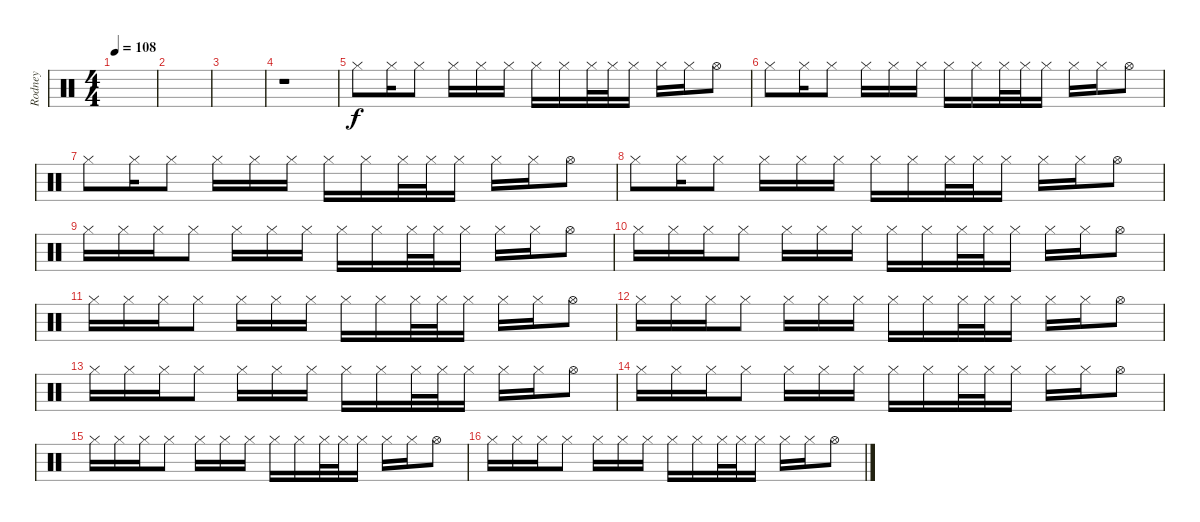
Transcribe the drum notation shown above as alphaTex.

\track ("Rodney" "Rodney") {instrument percussion}
\staff {score}
\articulation defaults
\ts (4 4)
\tempo 108
\clef neutral
\ks c
|
|
|
r.1 |
"Hi-Hat (closed)".8{dy f} "Hi-Hat (closed)".16 "Hi-Hat (closed)".8 "Hi-Hat (closed)".16 "Hi-Hat (closed)".16 "Hi-Hat (closed)".16 "Hi-Hat (closed)".16 "Hi-Hat (closed)".16 "Hi-Hat (closed)".32 "Hi-Hat (closed)".32 "Hi-Hat (closed)".16 "Hi-Hat (closed)".16 "Hi-Hat (closed)".16 "Hi-Hat (open)".8 |
"Hi-Hat (closed)".8 "Hi-Hat (closed)".16 "Hi-Hat (closed)".8 "Hi-Hat (closed)".16 "Hi-Hat (closed)".16 "Hi-Hat (closed)".16 "Hi-Hat (closed)".16 "Hi-Hat (closed)".16 "Hi-Hat (closed)".32 "Hi-Hat (closed)".32 "Hi-Hat (closed)".16 "Hi-Hat (closed)".16 "Hi-Hat (closed)".16 "Hi-Hat (open)".8 |
"Hi-Hat (closed)".8 "Hi-Hat (closed)".16 "Hi-Hat (closed)".8 "Hi-Hat (closed)".16 "Hi-Hat (closed)".16 "Hi-Hat (closed)".16 "Hi-Hat (closed)".16 "Hi-Hat (closed)".16 "Hi-Hat (closed)".32 "Hi-Hat (closed)".32 "Hi-Hat (closed)".16 "Hi-Hat (closed)".16 "Hi-Hat (closed)".16 "Hi-Hat (open)".8 |
"Hi-Hat (closed)".8 "Hi-Hat (closed)".16 "Hi-Hat (closed)".8 "Hi-Hat (closed)".16 "Hi-Hat (closed)".16 "Hi-Hat (closed)".16 "Hi-Hat (closed)".16 "Hi-Hat (closed)".16 "Hi-Hat (closed)".32 "Hi-Hat (closed)".32 "Hi-Hat (closed)".16 "Hi-Hat (closed)".16 "Hi-Hat (closed)".16 "Hi-Hat (open)".8 |
"Hi-Hat (closed)".16 "Hi-Hat (closed)".16 "Hi-Hat (closed)".16 "Hi-Hat (closed)".8 "Hi-Hat (closed)".16 "Hi-Hat (closed)".16 "Hi-Hat (closed)".16 "Hi-Hat (closed)".16 "Hi-Hat (closed)".16 "Hi-Hat (closed)".32 "Hi-Hat (closed)".32 "Hi-Hat (closed)".16 "Hi-Hat (closed)".16 "Hi-Hat (closed)".16 "Hi-Hat (open)".8 |
"Hi-Hat (closed)".16 "Hi-Hat (closed)".16 "Hi-Hat (closed)".16 "Hi-Hat (closed)".8 "Hi-Hat (closed)".16 "Hi-Hat (closed)".16 "Hi-Hat (closed)".16 "Hi-Hat (closed)".16 "Hi-Hat (closed)".16 "Hi-Hat (closed)".32 "Hi-Hat (closed)".32 "Hi-Hat (closed)".16 "Hi-Hat (closed)".16 "Hi-Hat (closed)".16 "Hi-Hat (open)".8 |
"Hi-Hat (closed)".16 "Hi-Hat (closed)".16 "Hi-Hat (closed)".16 "Hi-Hat (closed)".8 "Hi-Hat (closed)".16 "Hi-Hat (closed)".16 "Hi-Hat (closed)".16 "Hi-Hat (closed)".16 "Hi-Hat (closed)".16 "Hi-Hat (closed)".32 "Hi-Hat (closed)".32 "Hi-Hat (closed)".16 "Hi-Hat (closed)".16 "Hi-Hat (closed)".16 "Hi-Hat (open)".8 |
"Hi-Hat (closed)".16 "Hi-Hat (closed)".16 "Hi-Hat (closed)".16 "Hi-Hat (closed)".8 "Hi-Hat (closed)".16 "Hi-Hat (closed)".16 "Hi-Hat (closed)".16 "Hi-Hat (closed)".16 "Hi-Hat (closed)".16 "Hi-Hat (closed)".32 "Hi-Hat (closed)".32 "Hi-Hat (closed)".16 "Hi-Hat (closed)".16 "Hi-Hat (closed)".16 "Hi-Hat (open)".8 |
"Hi-Hat (closed)".16 "Hi-Hat (closed)".16 "Hi-Hat (closed)".16 "Hi-Hat (closed)".8 "Hi-Hat (closed)".16 "Hi-Hat (closed)".16 "Hi-Hat (closed)".16 "Hi-Hat (closed)".16 "Hi-Hat (closed)".16 "Hi-Hat (closed)".32 "Hi-Hat (closed)".32 "Hi-Hat (closed)".16 "Hi-Hat (closed)".16 "Hi-Hat (closed)".16 "Hi-Hat (open)".8 |
"Hi-Hat (closed)".16 "Hi-Hat (closed)".16 "Hi-Hat (closed)".16 "Hi-Hat (closed)".8 "Hi-Hat (closed)".16 "Hi-Hat (closed)".16 "Hi-Hat (closed)".16 "Hi-Hat (closed)".16 "Hi-Hat (closed)".16 "Hi-Hat (closed)".32 "Hi-Hat (closed)".32 "Hi-Hat (closed)".16 "Hi-Hat (closed)".16 "Hi-Hat (closed)".16 "Hi-Hat (open)".8 |
"Hi-Hat (closed)".16 "Hi-Hat (closed)".16 "Hi-Hat (closed)".16 "Hi-Hat (closed)".8 "Hi-Hat (closed)".16 "Hi-Hat (closed)".16 "Hi-Hat (closed)".16 "Hi-Hat (closed)".16 "Hi-Hat (closed)".16 "Hi-Hat (closed)".32 "Hi-Hat (closed)".32 "Hi-Hat (closed)".16 "Hi-Hat (closed)".16 "Hi-Hat (closed)".16 "Hi-Hat (open)".8 |
"Hi-Hat (closed)".16 "Hi-Hat (closed)".16 "Hi-Hat (closed)".16 "Hi-Hat (closed)".8 "Hi-Hat (closed)".16 "Hi-Hat (closed)".16 "Hi-Hat (closed)".16 "Hi-Hat (closed)".16 "Hi-Hat (closed)".16 "Hi-Hat (closed)".32 "Hi-Hat (closed)".32 "Hi-Hat (closed)".16 "Hi-Hat (closed)".16 "Hi-Hat (closed)".16 "Hi-Hat (open)".8
